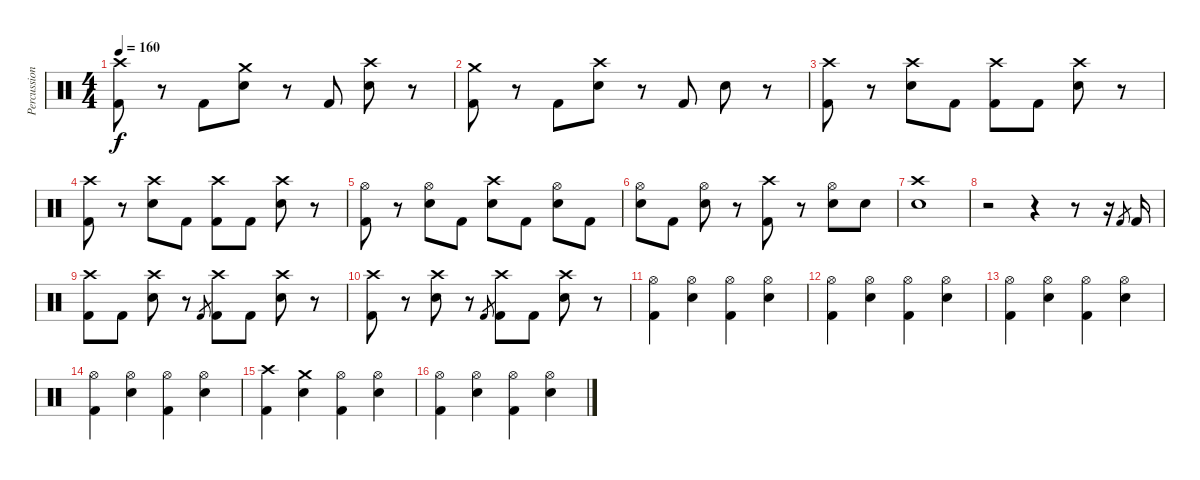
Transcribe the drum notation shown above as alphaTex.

\track ("Percussion" "Percussion") {instrument percussion}
\staff {score}
\articulation defaults
\ts (4 4)
\tempo 160
\clef neutral
\ks c
("Crash high (hit)" "Kick (hit) 2").8{dy f} r.8 "Kick (hit) 2".8 ("Crash medium (hit)" "Electric Snare (hit)").8 r.8 "Kick (hit) 2".8 ("Crash high (hit)" "Electric Snare (hit)").8 r.8 |
("Crash medium (hit)" "Kick (hit) 2").8 r.8 "Kick (hit) 2".8 ("Crash high (hit)" "Electric Snare (hit)").8 r.8 "Kick (hit) 2".8 "Electric Snare (hit)".8 r.8 |
("Crash high (hit)" "Kick (hit) 2").8 r.8 ("Crash high (hit)" "Electric Snare (hit)").8 "Kick (hit) 2".8 ("Crash high (hit)" "Kick (hit) 2").8 "Kick (hit) 2".8 ("Crash high (hit)" "Electric Snare (hit)").8 r.8 |
("Crash high (hit)" "Kick (hit) 2").8 r.8 ("Crash high (hit)" "Electric Snare (hit)").8 "Kick (hit) 2".8 ("Crash high (hit)" "Kick (hit) 2").8 "Kick (hit) 2".8 ("Crash high (hit)" "Electric Snare (hit)").8 r.8 |
("Hi-Hat (open)" "Kick (hit) 2").8 r.8 ("Hi-Hat (open)" "Electric Snare (hit)").8 "Kick (hit) 2".8 ("Crash high (hit)" "Electric Snare (hit)").8 "Kick (hit) 2".8 ("Hi-Hat (open)" "Electric Snare (hit)").8 "Kick (hit) 2".8 |
("Hi-Hat (open)" "Electric Snare (hit)").8 "Kick (hit) 2".8 ("Hi-Hat (open)" "Electric Snare (hit)").8 r.8 ("Crash high (hit)" "Kick (hit) 2").8 r.8 ("Hi-Hat (open)" "Electric Snare (hit)").8 "Electric Snare (hit)".8 |
("Crash high (hit)" "Electric Snare (hit)").1 |
r.2 r.4 r.8 r.16 "Kick (hit) 2".8{gr} "Kick (hit) 2".16 |
("Crash high (hit)" "Kick (hit) 2").8 "Kick (hit) 2".8 ("Crash high (hit)" "Electric Snare (hit)").8 r.8 "Kick (hit) 2".8{gr} ("Crash high (hit)" "Kick (hit) 2").8 "Kick (hit) 2".8 ("Crash high (hit)" "Electric Snare (hit)").8 r.8 |
("Crash high (hit)" "Kick (hit) 2").8 r.8 ("Crash high (hit)" "Electric Snare (hit)").8 r.8 "Kick (hit) 2".8{gr} ("Crash high (hit)" "Kick (hit) 2").8 "Kick (hit) 2".8 ("Crash high (hit)" "Electric Snare (hit)").8 r.8 |
("Hi-Hat (open)" "Kick (hit) 2").4 ("Hi-Hat (open)" "Electric Snare (hit)").4 ("Hi-Hat (open)" "Kick (hit) 2").4 ("Hi-Hat (open)" "Electric Snare (hit)").4 |
("Hi-Hat (open)" "Kick (hit) 2").4 ("Hi-Hat (open)" "Electric Snare (hit)").4 ("Hi-Hat (open)" "Kick (hit) 2").4 ("Hi-Hat (open)" "Electric Snare (hit)").4 |
("Hi-Hat (open)" "Kick (hit) 2").4 ("Hi-Hat (open)" "Electric Snare (hit)").4 ("Hi-Hat (open)" "Kick (hit) 2").4 ("Hi-Hat (open)" "Electric Snare (hit)").4 |
("Hi-Hat (open)" "Kick (hit) 2").4 ("Hi-Hat (open)" "Electric Snare (hit)").4 ("Hi-Hat (open)" "Kick (hit) 2").4 ("Hi-Hat (open)" "Electric Snare (hit)").4 |
("Crash high (hit)" "Kick (hit) 2").4 ("Crash medium (hit)" "Electric Snare (hit)").4 ("Hi-Hat (open)" "Kick (hit) 2").4 ("Hi-Hat (open)" "Electric Snare (hit)").4 |
("Hi-Hat (open)" "Kick (hit) 2").4 ("Hi-Hat (open)" "Electric Snare (hit)").4 ("Hi-Hat (open)" "Kick (hit) 2").4 ("Hi-Hat (open)" "Electric Snare (hit)").4
